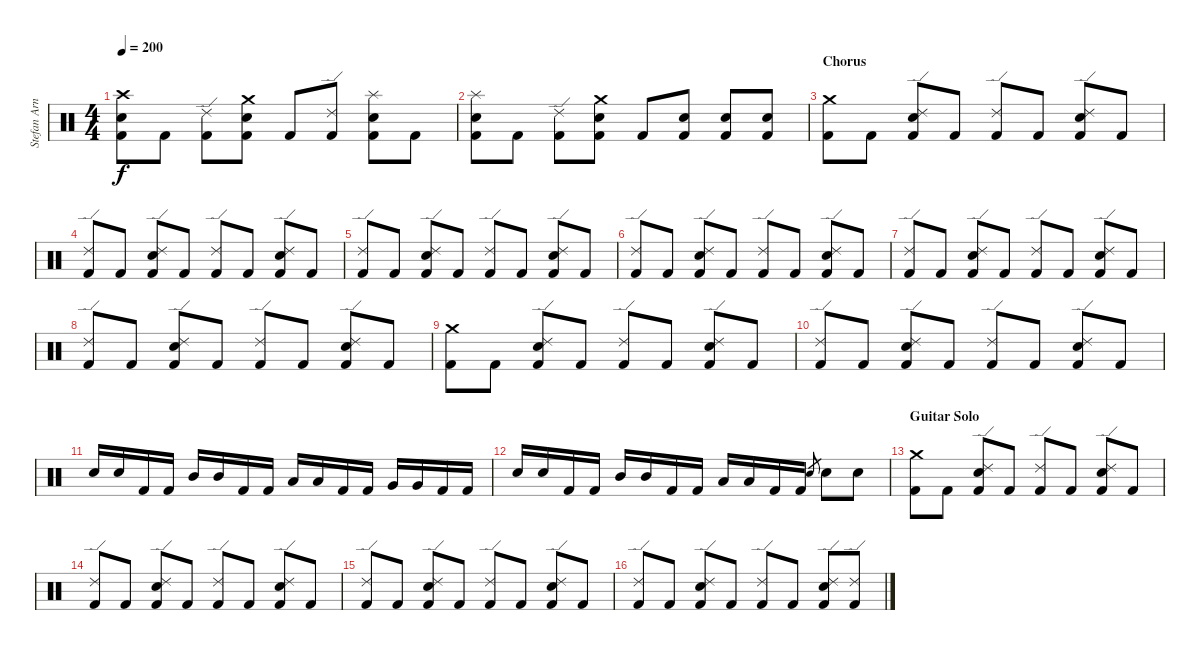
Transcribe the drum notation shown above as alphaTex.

\track ("Stefan Arnold" "Stefan Arn") {instrument percussion}
\staff {score}
\articulation defaults
\ts (4 4)
\tempo 200
\clef neutral
\ks c
("Crash high (hit)" "Electric Snare (hit)" "Kick (hit) 2").8{dy f} "Kick (hit) 2".8 ("Ride (edge) 2" "Kick (hit) 2").8 ("Crash medium (hit)" "Electric Snare (hit)" "Kick (hit) 2").8 "Kick (hit) 2".8 ("Ride (edge) 2" "Kick (hit) 2").8 ("Splash (hit)" "Electric Snare (hit)" "Kick (hit) 2").8 "Kick (hit) 2".8 |
("Splash (hit)" "Electric Snare (hit)" "Kick (hit) 2").8 "Kick (hit) 2".8 ("Ride (edge) 2" "Kick (hit) 2").8 ("Crash medium (hit)" "Electric Snare (hit)" "Kick (hit) 2").8 "Kick (hit) 2".8 ("Electric Snare (hit)" "Kick (hit) 2").8 ("Electric Snare (hit)" "Kick (hit) 2").8 ("Electric Snare (hit)" "Kick (hit) 2").8 |
\section ("" "Chorus")
("Crash medium (hit)" "Kick (hit) 2").8 "Kick (hit) 2".8 ("Ride (edge) 2" "Electric Snare (hit)" "Kick (hit) 2").8 "Kick (hit) 2".8 ("Ride (edge) 2" "Kick (hit) 2").8 "Kick (hit) 2".8 ("Ride (edge) 2" "Electric Snare (hit)" "Kick (hit) 2").8 "Kick (hit) 2".8 |
("Ride (edge) 2" "Kick (hit) 2").8 "Kick (hit) 2".8 ("Ride (edge) 2" "Electric Snare (hit)" "Kick (hit) 2").8 "Kick (hit) 2".8 ("Ride (edge) 2" "Kick (hit) 2").8 "Kick (hit) 2".8 ("Ride (edge) 2" "Electric Snare (hit)" "Kick (hit) 2").8 "Kick (hit) 2".8 |
("Ride (edge) 2" "Kick (hit) 2").8 "Kick (hit) 2".8 ("Ride (edge) 2" "Electric Snare (hit)" "Kick (hit) 2").8 "Kick (hit) 2".8 ("Ride (edge) 2" "Kick (hit) 2").8 "Kick (hit) 2".8 ("Ride (edge) 2" "Electric Snare (hit)" "Kick (hit) 2").8 "Kick (hit) 2".8 |
("Ride (edge) 2" "Kick (hit) 2").8 "Kick (hit) 2".8 ("Ride (edge) 2" "Electric Snare (hit)" "Kick (hit) 2").8 "Kick (hit) 2".8 ("Ride (edge) 2" "Kick (hit) 2").8 "Kick (hit) 2".8 ("Ride (edge) 2" "Electric Snare (hit)" "Kick (hit) 2").8 "Kick (hit) 2".8 |
("Ride (edge) 2" "Kick (hit) 2").8 "Kick (hit) 2".8 ("Ride (edge) 2" "Electric Snare (hit)" "Kick (hit) 2").8 "Kick (hit) 2".8 ("Ride (edge) 2" "Kick (hit) 2").8 "Kick (hit) 2".8 ("Ride (edge) 2" "Electric Snare (hit)" "Kick (hit) 2").8 "Kick (hit) 2".8 |
("Ride (edge) 2" "Kick (hit) 2").8 "Kick (hit) 2".8 ("Ride (edge) 2" "Electric Snare (hit)" "Kick (hit) 2").8 "Kick (hit) 2".8 ("Ride (edge) 2" "Kick (hit) 2").8 "Kick (hit) 2".8 ("Ride (edge) 2" "Electric Snare (hit)" "Kick (hit) 2").8 "Kick (hit) 2".8 |
("Crash medium (hit)" "Kick (hit) 2").8 "Kick (hit) 2".8 ("Ride (edge) 2" "Electric Snare (hit)" "Kick (hit) 2").8 "Kick (hit) 2".8 ("Ride (edge) 2" "Kick (hit) 2").8 "Kick (hit) 2".8 ("Ride (edge) 2" "Electric Snare (hit)" "Kick (hit) 2").8 "Kick (hit) 2".8 |
("Ride (edge) 2" "Kick (hit) 2").8 "Kick (hit) 2".8 ("Ride (edge) 2" "Electric Snare (hit)" "Kick (hit) 2").8 "Kick (hit) 2".8 ("Ride (edge) 2" "Kick (hit) 2").8 "Kick (hit) 2".8 ("Ride (edge) 2" "Electric Snare (hit)" "Kick (hit) 2").8 "Kick (hit) 2".8 |
"Electric Snare (hit)".16 "Electric Snare (hit)".16 "Kick (hit) 2".16 "Kick (hit) 2".16 "Mid Tom (hit)".16 "Mid Tom (hit)".16 "Kick (hit) 2".16 "Kick (hit) 2".16 "Low Tom (hit)".16 "Low Tom (hit)".16 "Kick (hit) 2".16 "Kick (hit) 2".16 "Very Low Tom (hit)".16 "Very Low Tom (hit)".16 "Kick (hit) 2".16 "Kick (hit) 2".16 |
"Electric Snare (hit)".16 "Electric Snare (hit)".16 "Kick (hit) 2".16 "Kick (hit) 2".16 "Mid Tom (hit)".16 "Mid Tom (hit)".16 "Kick (hit) 2".16 "Kick (hit) 2".16 "Low Tom (hit)".16 "Low Tom (hit)".16 "Kick (hit) 2".16 "Kick (hit) 2".16 "Electric Snare (hit)".8{gr} "Electric Snare (hit)".8 "Electric Snare (hit)".8 |
\section ("" "Guitar Solo")
("Crash medium (hit)" "Kick (hit) 2").8 "Kick (hit) 2".8 ("Ride (edge) 2" "Electric Snare (hit)" "Kick (hit) 2").8 "Kick (hit) 2".8 ("Ride (edge) 2" "Kick (hit) 2").8 "Kick (hit) 2".8 ("Ride (edge) 2" "Electric Snare (hit)" "Kick (hit) 2").8 "Kick (hit) 2".8 |
("Ride (edge) 2" "Kick (hit) 2").8 "Kick (hit) 2".8 ("Ride (edge) 2" "Electric Snare (hit)" "Kick (hit) 2").8 "Kick (hit) 2".8 ("Ride (edge) 2" "Kick (hit) 2").8 "Kick (hit) 2".8 ("Ride (edge) 2" "Electric Snare (hit)" "Kick (hit) 2").8 "Kick (hit) 2".8 |
("Ride (edge) 2" "Kick (hit) 2").8 "Kick (hit) 2".8 ("Ride (edge) 2" "Electric Snare (hit)" "Kick (hit) 2").8 "Kick (hit) 2".8 ("Ride (edge) 2" "Kick (hit) 2").8 "Kick (hit) 2".8 ("Ride (edge) 2" "Electric Snare (hit)" "Kick (hit) 2").8 "Kick (hit) 2".8 |
("Ride (edge) 2" "Kick (hit) 2").8 "Kick (hit) 2".8 ("Ride (edge) 2" "Electric Snare (hit)" "Kick (hit) 2").8 "Kick (hit) 2".8 ("Ride (edge) 2" "Kick (hit) 2").8 "Kick (hit) 2".8 ("Ride (edge) 2" "Electric Snare (hit)" "Kick (hit) 2").8 ("Ride (edge) 2" "Kick (hit) 2").8
